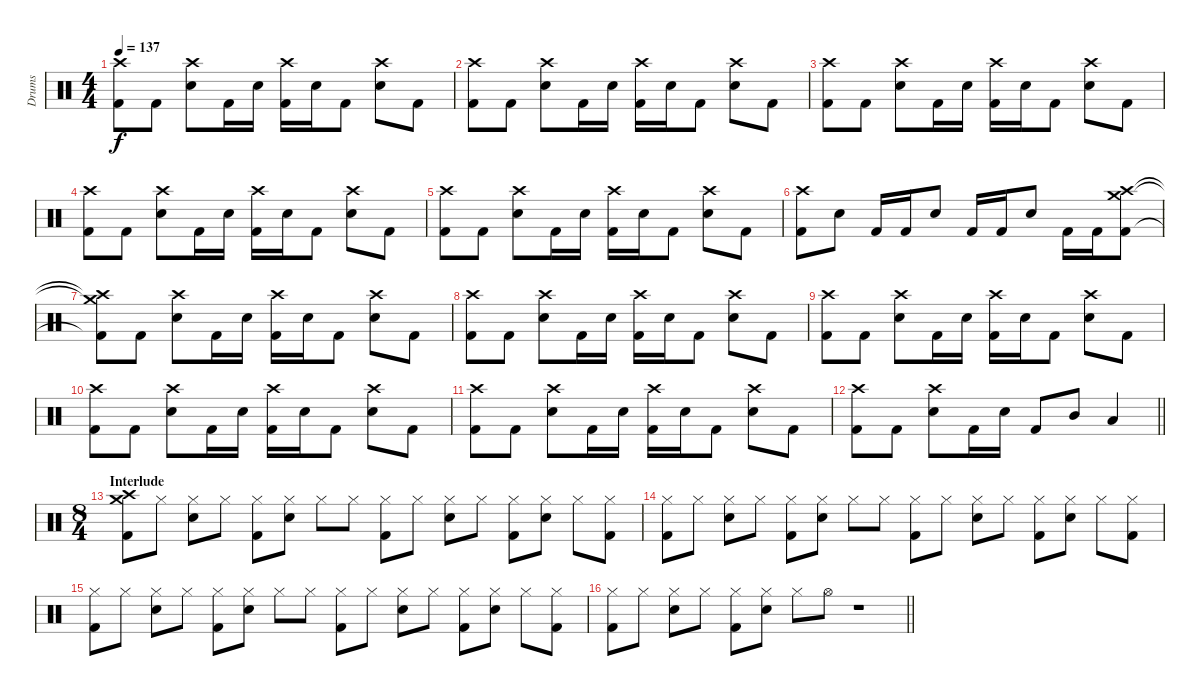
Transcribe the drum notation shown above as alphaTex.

\track ("Drums" "Drums") {instrument percussion}
\staff {score}
\articulation defaults
\ts (4 4)
\tempo 137
\clef neutral
\ks c
("Crash high (hit)" "Kick (hit) 2").8{dy f} "Kick (hit) 2".8 ("Crash high (hit)" "Electric Snare (hit)").8 "Kick (hit) 2".16 "Electric Snare (hit)".16 ("Crash high (hit)" "Kick (hit) 2").16 "Electric Snare (hit)".16 "Kick (hit) 2".8 ("Crash high (hit)" "Electric Snare (hit)").8 "Kick (hit) 2".8 |
("Crash high (hit)" "Kick (hit) 2").8 "Kick (hit) 2".8 ("Crash high (hit)" "Electric Snare (hit)").8 "Kick (hit) 2".16 "Electric Snare (hit)".16 ("Crash high (hit)" "Kick (hit) 2").16 "Electric Snare (hit)".16 "Kick (hit) 2".8 ("Crash high (hit)" "Electric Snare (hit)").8 "Kick (hit) 2".8 |
("Crash high (hit)" "Kick (hit) 2").8 "Kick (hit) 2".8 ("Crash high (hit)" "Electric Snare (hit)").8 "Kick (hit) 2".16 "Electric Snare (hit)".16 ("Crash high (hit)" "Kick (hit) 2").16 "Electric Snare (hit)".16 "Kick (hit) 2".8 ("Crash high (hit)" "Electric Snare (hit)").8 "Kick (hit) 2".8 |
("Crash high (hit)" "Kick (hit) 2").8 "Kick (hit) 2".8 ("Crash high (hit)" "Electric Snare (hit)").8 "Kick (hit) 2".16 "Electric Snare (hit)".16 ("Crash high (hit)" "Kick (hit) 2").16 "Electric Snare (hit)".16 "Kick (hit) 2".8 ("Crash high (hit)" "Electric Snare (hit)").8 "Kick (hit) 2".8 |
("Crash high (hit)" "Kick (hit) 2").8 "Kick (hit) 2".8 ("Crash high (hit)" "Electric Snare (hit)").8 "Kick (hit) 2".16 "Electric Snare (hit)".16 ("Crash high (hit)" "Kick (hit) 2").16 "Electric Snare (hit)".16 "Kick (hit) 2".8 ("Crash high (hit)" "Electric Snare (hit)").8 "Kick (hit) 2".8 |
("Crash high (hit)" "Kick (hit) 2").8 "Electric Snare (hit)".8 "Kick (hit) 2".16 "Kick (hit) 2".16 "Electric Snare (hit)".8 "Kick (hit) 2".16 "Kick (hit) 2".16 "Electric Snare (hit)".8 "Kick (hit) 2".16 "Kick (hit) 2".16 ("Crash medium (hit)" "Crash high (hit)" "Kick (hit) 2").8 |
("Crash medium (hit)"{t} "Crash high (hit)"{t} "Kick (hit) 2"{t}).8 "Kick (hit) 2".8 ("Crash high (hit)" "Electric Snare (hit)").8 "Kick (hit) 2".16 "Electric Snare (hit)".16 ("Crash high (hit)" "Kick (hit) 2").16 "Electric Snare (hit)".16 "Kick (hit) 2".8 ("Crash high (hit)" "Electric Snare (hit)").8 "Kick (hit) 2".8 |
("Crash high (hit)" "Kick (hit) 2").8 "Kick (hit) 2".8 ("Crash high (hit)" "Electric Snare (hit)").8 "Kick (hit) 2".16 "Electric Snare (hit)".16 ("Crash high (hit)" "Kick (hit) 2").16 "Electric Snare (hit)".16 "Kick (hit) 2".8 ("Crash high (hit)" "Electric Snare (hit)").8 "Kick (hit) 2".8 |
("Crash high (hit)" "Kick (hit) 2").8 "Kick (hit) 2".8 ("Crash high (hit)" "Electric Snare (hit)").8 "Kick (hit) 2".16 "Electric Snare (hit)".16 ("Crash high (hit)" "Kick (hit) 2").16 "Electric Snare (hit)".16 "Kick (hit) 2".8 ("Crash high (hit)" "Electric Snare (hit)").8 "Kick (hit) 2".8 |
("Crash high (hit)" "Kick (hit) 2").8 "Kick (hit) 2".8 ("Crash high (hit)" "Electric Snare (hit)").8 "Kick (hit) 2".16 "Electric Snare (hit)".16 ("Crash high (hit)" "Kick (hit) 2").16 "Electric Snare (hit)".16 "Kick (hit) 2".8 ("Crash high (hit)" "Electric Snare (hit)").8 "Kick (hit) 2".8 |
("Crash high (hit)" "Kick (hit) 2").8 "Kick (hit) 2".8 ("Crash high (hit)" "Electric Snare (hit)").8 "Kick (hit) 2".16 "Electric Snare (hit)".16 ("Crash high (hit)" "Kick (hit) 2").16 "Electric Snare (hit)".16 "Kick (hit) 2".8 ("Crash high (hit)" "Electric Snare (hit)").8 "Kick (hit) 2".8 |
\barLineRight lightlight
("Crash high (hit)" "Kick (hit) 2").8 "Kick (hit) 2".8 ("Crash high (hit)" "Electric Snare (hit)").8 "Kick (hit) 2".16 "Electric Snare (hit)".16 "Kick (hit) 2".8 "Mid Tom (hit)".8 "Low Tom (hit)".4 |
\ts (8 4)
\section ("" "Interlude")
("Crash medium (hit)" "Crash high (hit)" "Kick (hit) 2").8 "Hi-Hat (closed)".8 ("Hi-Hat (closed)" "Electric Snare (hit)").8 "Hi-Hat (closed)".8 ("Hi-Hat (closed)" "Kick (hit) 2").8 ("Hi-Hat (closed)" "Electric Snare (hit)").8 "Hi-Hat (closed)".8 "Hi-Hat (closed)".8 ("Hi-Hat (closed)" "Kick (hit) 2").8 "Hi-Hat (closed)".8 ("Hi-Hat (closed)" "Electric Snare (hit)").8 "Hi-Hat (closed)".8 ("Hi-Hat (closed)" "Kick (hit) 2").8 ("Hi-Hat (closed)" "Electric Snare (hit)").8 "Hi-Hat (closed)".8 ("Hi-Hat (closed)" "Kick (hit) 2").8 |
("Hi-Hat (closed)" "Kick (hit) 2").8 "Hi-Hat (closed)".8 ("Hi-Hat (closed)" "Electric Snare (hit)").8 "Hi-Hat (closed)".8 ("Hi-Hat (closed)" "Kick (hit) 2").8 ("Hi-Hat (closed)" "Electric Snare (hit)").8 "Hi-Hat (closed)".8 "Hi-Hat (closed)".8 ("Hi-Hat (closed)" "Kick (hit) 2").8 "Hi-Hat (closed)".8 ("Hi-Hat (closed)" "Electric Snare (hit)").8 "Hi-Hat (closed)".8 ("Hi-Hat (closed)" "Kick (hit) 2").8 ("Hi-Hat (closed)" "Electric Snare (hit)").8 "Hi-Hat (closed)".8 ("Hi-Hat (closed)" "Kick (hit) 2").8 |
("Hi-Hat (closed)" "Kick (hit) 2").8 "Hi-Hat (closed)".8 ("Hi-Hat (closed)" "Electric Snare (hit)").8 "Hi-Hat (closed)".8 ("Hi-Hat (closed)" "Kick (hit) 2").8 ("Hi-Hat (closed)" "Electric Snare (hit)").8 "Hi-Hat (closed)".8 "Hi-Hat (closed)".8 ("Hi-Hat (closed)" "Kick (hit) 2").8 "Hi-Hat (closed)".8 ("Hi-Hat (closed)" "Electric Snare (hit)").8 "Hi-Hat (closed)".8 ("Hi-Hat (closed)" "Kick (hit) 2").8 ("Hi-Hat (closed)" "Electric Snare (hit)").8 "Hi-Hat (closed)".8 ("Hi-Hat (closed)" "Kick (hit) 2").8 |
\barLineRight lightlight
("Hi-Hat (closed)" "Kick (hit) 2").8 "Hi-Hat (closed)".8 ("Hi-Hat (closed)" "Electric Snare (hit)").8 "Hi-Hat (closed)".8 ("Hi-Hat (closed)" "Kick (hit) 2").8 ("Hi-Hat (closed)" "Electric Snare (hit)").8 "Hi-Hat (closed)".8 "Hi-Hat (open)".8 r.1
